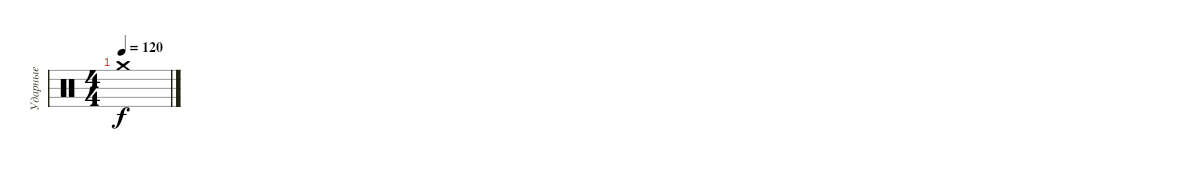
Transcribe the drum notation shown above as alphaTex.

\track ("Ударные" "Ударные") {instrument percussion}
\staff {score}
\articulation defaults
\ts (4 4)
\tempo 120
\clef neutral
\ks c "Crash medium (hit)".1{dy f}
